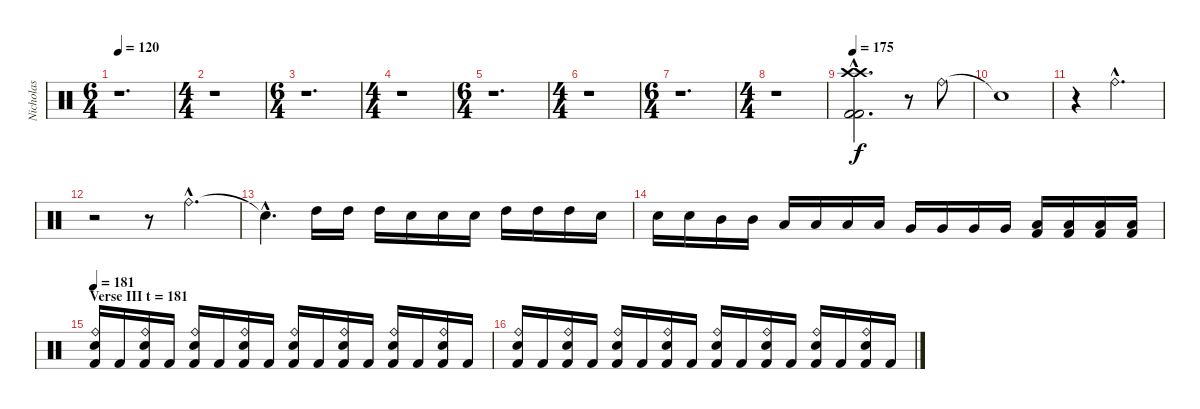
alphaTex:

\track ("Nicholas" "Nicholas") {instrument percussion}
\staff {score}
\articulation defaults
\ts (6 4)
\tempo 120
\clef neutral
\ks c
r.1{d dy f} |
\ts (4 4)
r.1 |
\ts (6 4)
r.1{d} |
\ts (4 4)
r.1 |
\ts (6 4)
r.1{d} |
\ts (4 4)
r.1 |
\ts (6 4)
r.1{d} |
\ts (4 4)
r.1 |
\tempo 175
("Crash high (hit)"{hac} "Crash high (hit)"{hac} "Kick (hit) 2"{hac} "Kick (hit) 2"{hac}).2{d} r.8 "Ride (bell)".8 |
"Snare (hit)"{t}.1 |
r.4 "Ride (bell)"{hac}.2{d} |
r.2 r.8 "Ride (bell)"{hac}.4{d} |
"Snare (hit)"{hac t}.4{d} "High Tom (hit)".16 "High Tom (hit)".16 "High Tom (hit)".16 "Electric Snare (hit)".16 "Electric Snare (hit)".16 "Electric Snare (hit)".16 "High Tom (hit)".16 "High Tom (hit)".16 "High Tom (hit)".16 "Electric Snare (hit)".16 |
"Electric Snare (hit)".16 "Electric Snare (hit)".16 "Mid Tom (hit)".16 "Mid Tom (hit)".16 "Low Tom (hit)".16 "Low Tom (hit)".16 "Low Tom (hit)".16 "Low Tom (hit)".16 "Very Low Tom (hit)".16 "Very Low Tom (hit)".16 "Very Low Tom (hit)".16 "Very Low Tom (hit)".16 ("Low Floor Tom (hit)" "Kick (hit) 2").16 ("Low Floor Tom (hit)" "Kick (hit) 2").16 ("Low Floor Tom (hit)" "Kick (hit) 2").16 ("Low Floor Tom (hit)" "Kick (hit) 2").16 |
\section ("" "Verse III t = 181")
\tempo 181
("Ride (bell)" "Electric Snare (hit)" "Kick (hit) 2").16 "Kick (hit) 2".16 ("Ride (bell)" "Electric Snare (hit)" "Kick (hit) 2").16 "Kick (hit) 2".16 ("Ride (bell)" "Electric Snare (hit)" "Kick (hit) 2").16 "Kick (hit) 2".16 ("Ride (bell)" "Electric Snare (hit)" "Kick (hit) 2").16 "Kick (hit) 2".16 ("Ride (bell)" "Electric Snare (hit)" "Kick (hit) 2").16 "Kick (hit) 2".16 ("Ride (bell)" "Electric Snare (hit)" "Kick (hit) 2").16 "Kick (hit) 2".16 ("Ride (bell)" "Electric Snare (hit)" "Kick (hit) 2").16 "Kick (hit) 2".16 ("Ride (bell)" "Electric Snare (hit)" "Kick (hit) 2").16 "Kick (hit) 2".16 |
("Ride (bell)" "Electric Snare (hit)" "Kick (hit) 2").16 "Kick (hit) 2".16 ("Ride (bell)" "Electric Snare (hit)" "Kick (hit) 2").16 "Kick (hit) 2".16 ("Ride (bell)" "Electric Snare (hit)" "Kick (hit) 2").16 "Kick (hit) 2".16 ("Ride (bell)" "Electric Snare (hit)" "Kick (hit) 2").16 "Kick (hit) 2".16 ("Ride (bell)" "Electric Snare (hit)" "Kick (hit) 2").16 "Kick (hit) 2".16 ("Ride (bell)" "Electric Snare (hit)" "Kick (hit) 2").16 "Kick (hit) 2".16 ("Ride (bell)" "Electric Snare (hit)" "Kick (hit) 2").16 "Kick (hit) 2".16 ("Ride (bell)" "Electric Snare (hit)" "Kick (hit) 2").16 "Kick (hit) 2".16
